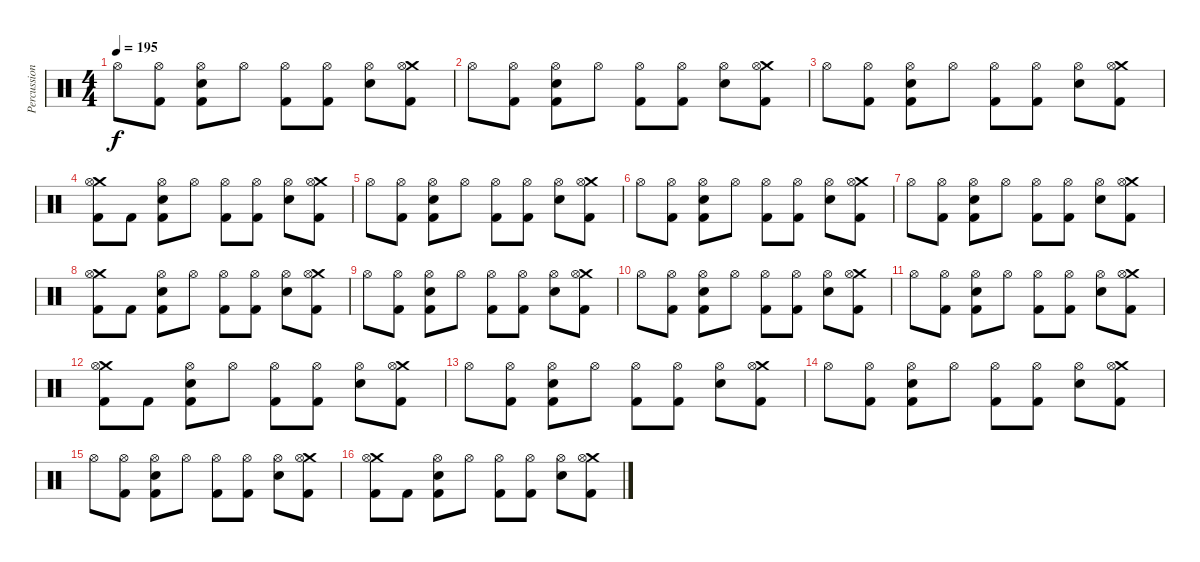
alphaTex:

\track ("Percussion" "Percussion") {instrument percussion}
\staff {score}
\articulation defaults
\ts (4 4)
\tempo 195
\clef neutral
\ks c "Hi-Hat (open)".8{dy f}
("Hi-Hat (open)" "Kick (hit) 2").8 ("Hi-Hat (open)" "Snare (hit) 2" "Kick (hit) 2").8 "Hi-Hat (open)".8 ("Hi-Hat (open)" "Kick (hit) 2").8 ("Hi-Hat (open)" "Kick (hit) 2").8 ("Hi-Hat (open)" "Snare (hit) 2").8 ("Crash medium (hit)" "Hi-Hat (open)" "Kick (hit) 2").8 |
"Hi-Hat (open)".8 ("Hi-Hat (open)" "Kick (hit) 2").8 ("Hi-Hat (open)" "Snare (hit) 2" "Kick (hit) 2").8 "Hi-Hat (open)".8 ("Hi-Hat (open)" "Kick (hit) 2").8 ("Hi-Hat (open)" "Kick (hit) 2").8 ("Hi-Hat (open)" "Snare (hit) 2").8 ("Crash medium (hit)" "Hi-Hat (open)" "Kick (hit) 2").8 |
"Hi-Hat (open)".8 ("Hi-Hat (open)" "Kick (hit) 2").8 ("Hi-Hat (open)" "Snare (hit) 2" "Kick (hit) 2").8 "Hi-Hat (open)".8 ("Hi-Hat (open)" "Kick (hit) 2").8 ("Hi-Hat (open)" "Kick (hit) 2").8 ("Hi-Hat (open)" "Snare (hit) 2").8 ("Crash medium (hit)" "Hi-Hat (open)" "Kick (hit) 2").8 |
("Crash medium (hit)" "Hi-Hat (open)" "Kick (hit) 2").8 "Kick (hit) 2".8 ("Hi-Hat (open)" "Snare (hit) 2" "Kick (hit) 2").8 "Hi-Hat (open)".8 ("Hi-Hat (open)" "Kick (hit) 2").8 ("Hi-Hat (open)" "Kick (hit) 2").8 ("Hi-Hat (open)" "Snare (hit) 2").8 ("Crash medium (hit)" "Hi-Hat (open)" "Kick (hit) 2").8 |
"Hi-Hat (open)".8 ("Hi-Hat (open)" "Kick (hit) 2").8 ("Hi-Hat (open)" "Snare (hit) 2" "Kick (hit) 2").8 "Hi-Hat (open)".8 ("Hi-Hat (open)" "Kick (hit) 2").8 ("Hi-Hat (open)" "Kick (hit) 2").8 ("Hi-Hat (open)" "Snare (hit) 2").8 ("Crash medium (hit)" "Hi-Hat (open)" "Kick (hit) 2").8 |
"Hi-Hat (open)".8 ("Hi-Hat (open)" "Kick (hit) 2").8 ("Hi-Hat (open)" "Snare (hit) 2" "Kick (hit) 2").8 "Hi-Hat (open)".8 ("Hi-Hat (open)" "Kick (hit) 2").8 ("Hi-Hat (open)" "Kick (hit) 2").8 ("Hi-Hat (open)" "Snare (hit) 2").8 ("Crash medium (hit)" "Hi-Hat (open)" "Kick (hit) 2").8 |
"Hi-Hat (open)".8 ("Hi-Hat (open)" "Kick (hit) 2").8 ("Hi-Hat (open)" "Snare (hit) 2" "Kick (hit) 2").8 "Hi-Hat (open)".8 ("Hi-Hat (open)" "Kick (hit) 2").8 ("Hi-Hat (open)" "Kick (hit) 2").8 ("Hi-Hat (open)" "Snare (hit) 2").8 ("Crash medium (hit)" "Hi-Hat (open)" "Kick (hit) 2").8 |
("Crash medium (hit)" "Hi-Hat (open)" "Kick (hit) 2").8 "Kick (hit) 2".8 ("Hi-Hat (open)" "Snare (hit) 2" "Kick (hit) 2").8 "Hi-Hat (open)".8 ("Hi-Hat (open)" "Kick (hit) 2").8 ("Hi-Hat (open)" "Kick (hit) 2").8 ("Hi-Hat (open)" "Snare (hit) 2").8 ("Crash medium (hit)" "Hi-Hat (open)" "Kick (hit) 2").8 |
"Hi-Hat (open)".8 ("Hi-Hat (open)" "Kick (hit) 2").8 ("Hi-Hat (open)" "Snare (hit) 2" "Kick (hit) 2").8 "Hi-Hat (open)".8 ("Hi-Hat (open)" "Kick (hit) 2").8 ("Hi-Hat (open)" "Kick (hit) 2").8 ("Hi-Hat (open)" "Snare (hit) 2").8 ("Crash medium (hit)" "Hi-Hat (open)" "Kick (hit) 2").8 |
"Hi-Hat (open)".8 ("Hi-Hat (open)" "Kick (hit) 2").8 ("Hi-Hat (open)" "Snare (hit) 2" "Kick (hit) 2").8 "Hi-Hat (open)".8 ("Hi-Hat (open)" "Kick (hit) 2").8 ("Hi-Hat (open)" "Kick (hit) 2").8 ("Hi-Hat (open)" "Snare (hit) 2").8 ("Crash medium (hit)" "Hi-Hat (open)" "Kick (hit) 2").8 |
"Hi-Hat (open)".8 ("Hi-Hat (open)" "Kick (hit) 2").8 ("Hi-Hat (open)" "Snare (hit) 2" "Kick (hit) 2").8 "Hi-Hat (open)".8 ("Hi-Hat (open)" "Kick (hit) 2").8 ("Hi-Hat (open)" "Kick (hit) 2").8 ("Hi-Hat (open)" "Snare (hit) 2").8 ("Crash medium (hit)" "Hi-Hat (open)" "Kick (hit) 2").8 |
("Crash medium (hit)" "Hi-Hat (open)" "Kick (hit) 2").8 "Kick (hit) 2".8 ("Hi-Hat (open)" "Snare (hit) 2" "Kick (hit) 2").8 "Hi-Hat (open)".8 ("Hi-Hat (open)" "Kick (hit) 2").8 ("Hi-Hat (open)" "Kick (hit) 2").8 ("Hi-Hat (open)" "Snare (hit) 2").8 ("Crash medium (hit)" "Hi-Hat (open)" "Kick (hit) 2").8 |
"Hi-Hat (open)".8 ("Hi-Hat (open)" "Kick (hit) 2").8 ("Hi-Hat (open)" "Snare (hit) 2" "Kick (hit) 2").8 "Hi-Hat (open)".8 ("Hi-Hat (open)" "Kick (hit) 2").8 ("Hi-Hat (open)" "Kick (hit) 2").8 ("Hi-Hat (open)" "Snare (hit) 2").8 ("Crash medium (hit)" "Hi-Hat (open)" "Kick (hit) 2").8 |
"Hi-Hat (open)".8 ("Hi-Hat (open)" "Kick (hit) 2").8 ("Hi-Hat (open)" "Snare (hit) 2" "Kick (hit) 2").8 "Hi-Hat (open)".8 ("Hi-Hat (open)" "Kick (hit) 2").8 ("Hi-Hat (open)" "Kick (hit) 2").8 ("Hi-Hat (open)" "Snare (hit) 2").8 ("Crash medium (hit)" "Hi-Hat (open)" "Kick (hit) 2").8 |
"Hi-Hat (open)".8 ("Hi-Hat (open)" "Kick (hit) 2").8 ("Hi-Hat (open)" "Snare (hit) 2" "Kick (hit) 2").8 "Hi-Hat (open)".8 ("Hi-Hat (open)" "Kick (hit) 2").8 ("Hi-Hat (open)" "Kick (hit) 2").8 ("Hi-Hat (open)" "Snare (hit) 2").8 ("Crash medium (hit)" "Hi-Hat (open)" "Kick (hit) 2").8 |
("Crash medium (hit)" "Hi-Hat (open)" "Kick (hit) 2").8 "Kick (hit) 2".8 ("Hi-Hat (open)" "Snare (hit) 2" "Kick (hit) 2").8 "Hi-Hat (open)".8 ("Hi-Hat (open)" "Kick (hit) 2").8 ("Hi-Hat (open)" "Kick (hit) 2").8 ("Hi-Hat (open)" "Snare (hit) 2").8 ("Crash medium (hit)" "Hi-Hat (open)" "Kick (hit) 2").8
